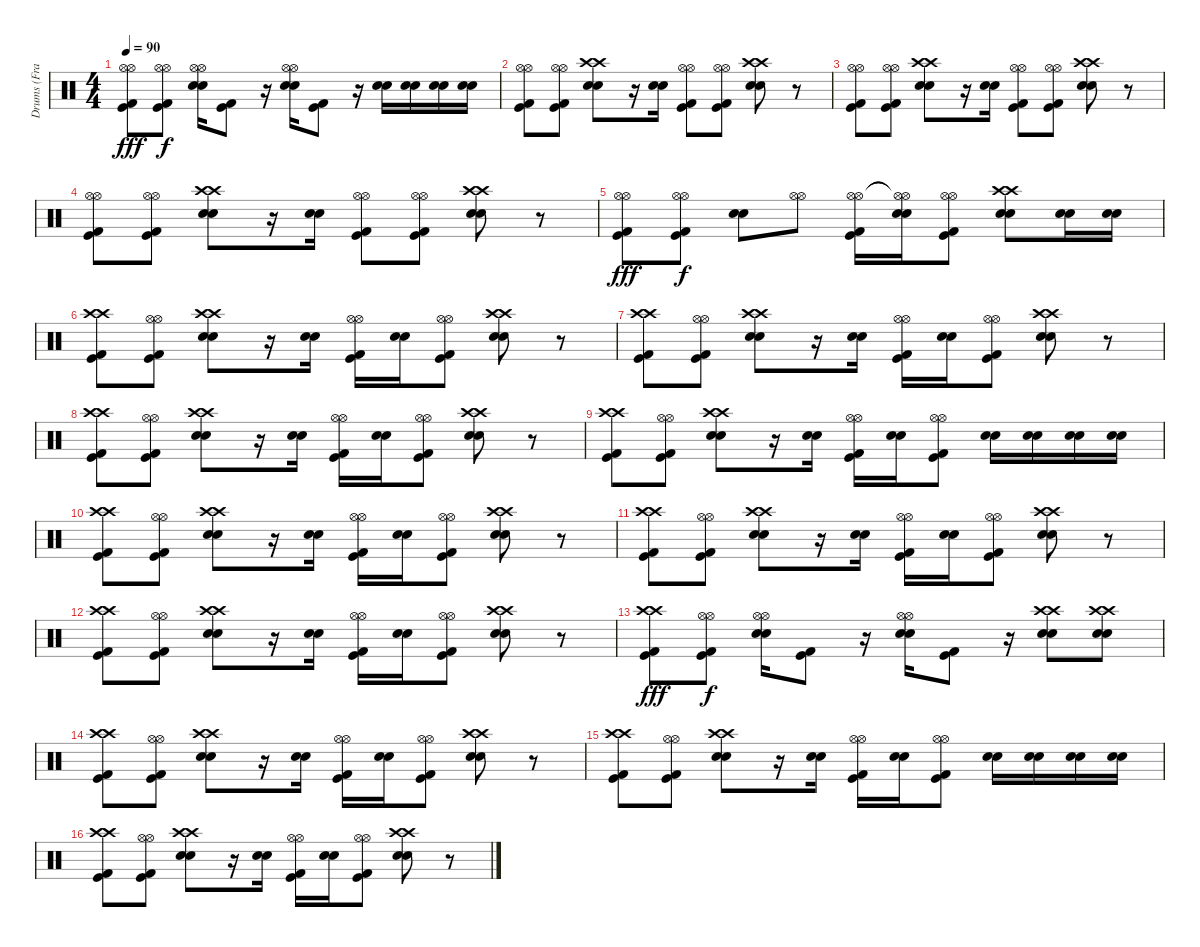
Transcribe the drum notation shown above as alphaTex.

\track ("Drums (Frank Ferrer)" "Drums (Fra") {instrument percussion}
\staff {score}
\articulation defaults
\ts (4 4)
\tempo 90
\clef neutral
\ks c
("Hi-Hat (open)" "Hi-Hat (open)" "Kick (hit)" "Kick (hit) 2").8{dy fff} ("Hi-Hat (open)" "Hi-Hat (open)" "Kick (hit)" "Kick (hit) 2").8{dy f} ("Hi-Hat (open)" "Hi-Hat (open)" "Snare (hit) 2" "Snare (hit) 2").16 ("Kick (hit)" "Kick (hit) 2").8 r.16 ("Hi-Hat (open)" "Hi-Hat (open)" "Snare (hit) 2" "Snare (hit) 2").16 ("Kick (hit)" "Kick (hit) 2").8 r.16 ("Snare (hit) 2" "Snare (hit) 2").16 ("Snare (hit) 2" "Snare (hit) 2").16 ("Snare (hit) 2" "Snare (hit) 2").16 ("Snare (hit) 2" "Snare (hit) 2").16 |
("Hi-Hat (open)" "Hi-Hat (open)" "Kick (hit)" "Kick (hit) 2").8 ("Hi-Hat (open)" "Hi-Hat (open)" "Kick (hit)" "Kick (hit) 2").8 ("Crash high (hit)" "Crash high (hit)" "Snare (hit) 2" "Snare (hit) 2").8 r.16 ("Snare (hit) 2" "Snare (hit) 2").16 ("Hi-Hat (open)" "Hi-Hat (open)" "Kick (hit)" "Kick (hit) 2").8 ("Hi-Hat (open)" "Hi-Hat (open)" "Kick (hit)" "Kick (hit) 2").8 ("Crash high (hit)" "Crash high (hit)" "Snare (hit) 2" "Snare (hit) 2").8 r.8 |
("Hi-Hat (open)" "Hi-Hat (open)" "Kick (hit)" "Kick (hit) 2").8 ("Hi-Hat (open)" "Hi-Hat (open)" "Kick (hit)" "Kick (hit) 2").8 ("Crash high (hit)" "Crash high (hit)" "Snare (hit) 2" "Snare (hit) 2").8 r.16 ("Snare (hit) 2" "Snare (hit) 2").16 ("Hi-Hat (open)" "Hi-Hat (open)" "Kick (hit)" "Kick (hit) 2").8 ("Hi-Hat (open)" "Hi-Hat (open)" "Kick (hit)" "Kick (hit) 2").8 ("Crash high (hit)" "Crash high (hit)" "Snare (hit) 2" "Snare (hit) 2").8 r.8 |
("Hi-Hat (open)" "Hi-Hat (open)" "Kick (hit)" "Kick (hit) 2").8 ("Hi-Hat (open)" "Hi-Hat (open)" "Kick (hit)" "Kick (hit) 2").8 ("Crash high (hit)" "Crash high (hit)" "Snare (hit) 2" "Snare (hit) 2").8 r.16 ("Snare (hit) 2" "Snare (hit) 2").16 ("Hi-Hat (open)" "Hi-Hat (open)" "Kick (hit)" "Kick (hit) 2").8 ("Hi-Hat (open)" "Hi-Hat (open)" "Kick (hit)" "Kick (hit) 2").8 ("Crash high (hit)" "Crash high (hit)" "Snare (hit) 2" "Snare (hit) 2").8 r.8 |
("Hi-Hat (open)" "Hi-Hat (open)" "Kick (hit)" "Kick (hit) 2").8{dy fff} ("Hi-Hat (open)" "Hi-Hat (open)" "Kick (hit)" "Kick (hit) 2").8{dy f} ("Snare (hit) 2" "Snare (hit) 2").8 ("Hi-Hat (open)" "Hi-Hat (open)").8 ("Hi-Hat (open)" "Hi-Hat (open)" "Kick (hit)" "Kick (hit) 2").16 ("Hi-Hat (open)"{t} "Hi-Hat (open)"{t} "Snare (hit) 2" "Snare (hit) 2").16 ("Hi-Hat (open)" "Hi-Hat (open)" "Kick (hit)" "Kick (hit) 2").8 ("Crash high (hit)" "Crash high (hit)" "Snare (hit) 2" "Snare (hit) 2").8 ("Snare (hit) 2" "Snare (hit) 2").16 ("Snare (hit) 2" "Snare (hit) 2").16 |
("Crash high (hit)" "Crash high (hit)" "Kick (hit)" "Kick (hit) 2").8 ("Hi-Hat (open)" "Hi-Hat (open)" "Kick (hit)" "Kick (hit) 2").8 ("Crash high (hit)" "Crash high (hit)" "Snare (hit) 2" "Snare (hit) 2").8 r.16 ("Snare (hit) 2" "Snare (hit) 2").16 ("Hi-Hat (open)" "Hi-Hat (open)" "Kick (hit)" "Kick (hit) 2").16 ("Snare (hit) 2" "Snare (hit) 2").16 ("Hi-Hat (open)" "Hi-Hat (open)" "Kick (hit)" "Kick (hit) 2").8 ("Crash high (hit)" "Crash high (hit)" "Snare (hit) 2" "Snare (hit) 2").8 r.8 |
("Crash high (hit)" "Crash high (hit)" "Kick (hit)" "Kick (hit) 2").8 ("Hi-Hat (open)" "Hi-Hat (open)" "Kick (hit)" "Kick (hit) 2").8 ("Crash high (hit)" "Crash high (hit)" "Snare (hit) 2" "Snare (hit) 2").8 r.16 ("Snare (hit) 2" "Snare (hit) 2").16 ("Hi-Hat (open)" "Hi-Hat (open)" "Kick (hit)" "Kick (hit) 2").16 ("Snare (hit) 2" "Snare (hit) 2").16 ("Hi-Hat (open)" "Hi-Hat (open)" "Kick (hit)" "Kick (hit) 2").8 ("Crash high (hit)" "Crash high (hit)" "Snare (hit) 2" "Snare (hit) 2").8 r.8 |
("Crash high (hit)" "Crash high (hit)" "Kick (hit)" "Kick (hit) 2").8 ("Hi-Hat (open)" "Hi-Hat (open)" "Kick (hit)" "Kick (hit) 2").8 ("Crash high (hit)" "Crash high (hit)" "Snare (hit) 2" "Snare (hit) 2").8 r.16 ("Snare (hit) 2" "Snare (hit) 2").16 ("Hi-Hat (open)" "Hi-Hat (open)" "Kick (hit)" "Kick (hit) 2").16 ("Snare (hit) 2" "Snare (hit) 2").16 ("Hi-Hat (open)" "Hi-Hat (open)" "Kick (hit)" "Kick (hit) 2").8 ("Crash high (hit)" "Crash high (hit)" "Snare (hit) 2" "Snare (hit) 2").8 r.8 |
("Crash high (hit)" "Crash high (hit)" "Kick (hit)" "Kick (hit) 2").8 ("Hi-Hat (open)" "Hi-Hat (open)" "Kick (hit)" "Kick (hit) 2").8 ("Crash high (hit)" "Crash high (hit)" "Snare (hit) 2" "Snare (hit) 2").8 r.16 ("Snare (hit) 2" "Snare (hit) 2").16 ("Hi-Hat (open)" "Hi-Hat (open)" "Kick (hit)" "Kick (hit) 2").16 ("Snare (hit) 2" "Snare (hit) 2").16 ("Hi-Hat (open)" "Hi-Hat (open)" "Kick (hit)" "Kick (hit) 2").8 ("Snare (hit) 2" "Snare (hit) 2").16 ("Snare (hit) 2" "Snare (hit) 2").16 ("Snare (hit) 2" "Snare (hit) 2").16 ("Snare (hit) 2" "Snare (hit) 2").16 |
("Crash high (hit)" "Crash high (hit)" "Kick (hit)" "Kick (hit) 2").8 ("Hi-Hat (open)" "Hi-Hat (open)" "Kick (hit)" "Kick (hit) 2").8 ("Crash high (hit)" "Crash high (hit)" "Snare (hit) 2" "Snare (hit) 2").8 r.16 ("Snare (hit) 2" "Snare (hit) 2").16 ("Hi-Hat (open)" "Hi-Hat (open)" "Kick (hit)" "Kick (hit) 2").16 ("Snare (hit) 2" "Snare (hit) 2").16 ("Hi-Hat (open)" "Hi-Hat (open)" "Kick (hit)" "Kick (hit) 2").8 ("Crash high (hit)" "Crash high (hit)" "Snare (hit) 2" "Snare (hit) 2").8 r.8 |
("Crash high (hit)" "Crash high (hit)" "Kick (hit)" "Kick (hit) 2").8 ("Hi-Hat (open)" "Hi-Hat (open)" "Kick (hit)" "Kick (hit) 2").8 ("Crash high (hit)" "Crash high (hit)" "Snare (hit) 2" "Snare (hit) 2").8 r.16 ("Snare (hit) 2" "Snare (hit) 2").16 ("Hi-Hat (open)" "Hi-Hat (open)" "Kick (hit)" "Kick (hit) 2").16 ("Snare (hit) 2" "Snare (hit) 2").16 ("Hi-Hat (open)" "Hi-Hat (open)" "Kick (hit)" "Kick (hit) 2").8 ("Crash high (hit)" "Crash high (hit)" "Snare (hit) 2" "Snare (hit) 2").8 r.8 |
("Crash high (hit)" "Crash high (hit)" "Kick (hit)" "Kick (hit) 2").8 ("Hi-Hat (open)" "Hi-Hat (open)" "Kick (hit)" "Kick (hit) 2").8 ("Crash high (hit)" "Crash high (hit)" "Snare (hit) 2" "Snare (hit) 2").8 r.16 ("Snare (hit) 2" "Snare (hit) 2").16 ("Hi-Hat (open)" "Hi-Hat (open)" "Kick (hit)" "Kick (hit) 2").16 ("Snare (hit) 2" "Snare (hit) 2").16 ("Hi-Hat (open)" "Hi-Hat (open)" "Kick (hit)" "Kick (hit) 2").8 ("Crash high (hit)" "Crash high (hit)" "Snare (hit) 2" "Snare (hit) 2").8 r.8 |
("Crash high (hit)" "Crash high (hit)" "Kick (hit)" "Kick (hit) 2").8{dy fff} ("Hi-Hat (open)" "Hi-Hat (open)" "Kick (hit)" "Kick (hit) 2").8{dy f} ("Hi-Hat (open)" "Hi-Hat (open)" "Snare (hit) 2" "Snare (hit) 2").16 ("Kick (hit)" "Kick (hit) 2").8 r.16 ("Hi-Hat (open)" "Hi-Hat (open)" "Snare (hit) 2" "Snare (hit) 2").16 ("Kick (hit)" "Kick (hit) 2").8 r.16 ("Crash high (hit)" "Crash high (hit)" "Snare (hit) 2" "Snare (hit) 2").8 ("Crash high (hit)" "Crash high (hit)" "Snare (hit) 2" "Snare (hit) 2").8 |
("Crash high (hit)" "Crash high (hit)" "Kick (hit)" "Kick (hit) 2").8 ("Hi-Hat (open)" "Hi-Hat (open)" "Kick (hit)" "Kick (hit) 2").8 ("Crash high (hit)" "Crash high (hit)" "Snare (hit) 2" "Snare (hit) 2").8 r.16 ("Snare (hit) 2" "Snare (hit) 2").16 ("Hi-Hat (open)" "Hi-Hat (open)" "Kick (hit)" "Kick (hit) 2").16 ("Snare (hit) 2" "Snare (hit) 2").16 ("Hi-Hat (open)" "Hi-Hat (open)" "Kick (hit)" "Kick (hit) 2").8 ("Crash high (hit)" "Crash high (hit)" "Snare (hit) 2" "Snare (hit) 2").8 r.8 |
("Crash high (hit)" "Crash high (hit)" "Kick (hit)" "Kick (hit) 2").8 ("Hi-Hat (open)" "Hi-Hat (open)" "Kick (hit)" "Kick (hit) 2").8 ("Crash high (hit)" "Crash high (hit)" "Snare (hit) 2" "Snare (hit) 2").8 r.16 ("Snare (hit) 2" "Snare (hit) 2").16 ("Hi-Hat (open)" "Hi-Hat (open)" "Kick (hit)" "Kick (hit) 2").16 ("Snare (hit) 2" "Snare (hit) 2").16 ("Hi-Hat (open)" "Hi-Hat (open)" "Kick (hit)" "Kick (hit) 2").8 ("Snare (hit) 2" "Snare (hit) 2").16 ("Snare (hit) 2" "Snare (hit) 2").16 ("Snare (hit) 2" "Snare (hit) 2").16 ("Snare (hit) 2" "Snare (hit) 2").16 |
("Crash high (hit)" "Crash high (hit)" "Kick (hit)" "Kick (hit) 2").8 ("Hi-Hat (open)" "Hi-Hat (open)" "Kick (hit)" "Kick (hit) 2").8 ("Crash high (hit)" "Crash high (hit)" "Snare (hit) 2" "Snare (hit) 2").8 r.16 ("Snare (hit) 2" "Snare (hit) 2").16 ("Hi-Hat (open)" "Hi-Hat (open)" "Kick (hit)" "Kick (hit) 2").16 ("Snare (hit) 2" "Snare (hit) 2").16 ("Hi-Hat (open)" "Hi-Hat (open)" "Kick (hit)" "Kick (hit) 2").8 ("Crash high (hit)" "Crash high (hit)" "Snare (hit) 2" "Snare (hit) 2").8 r.8
